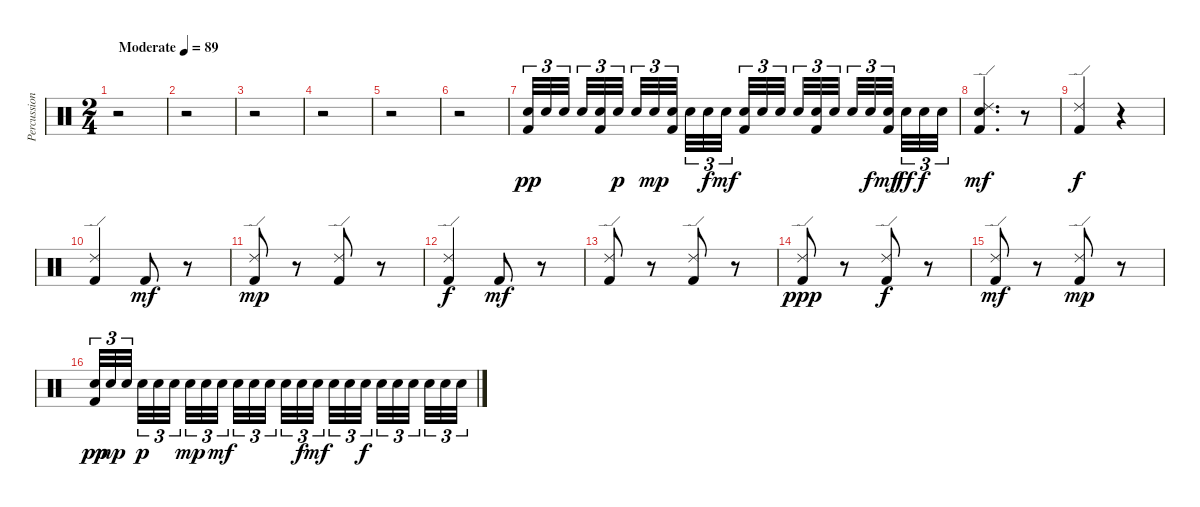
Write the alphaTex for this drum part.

\track ("Percussion" "Percussion") {instrument percussion}
\staff {score}
\articulation defaults
\ts (2 4)
\tempo (89 "Moderate")
\clef neutral
\ks c
r.2{dy pp} |
r.2 |
r.2 |
r.2 |
r.2 |
r.2 |
("Kick (hit) 2" "Snare (hit) 2").32{tu (3 2)} "Snare (hit) 2".32{tu (3 2)} "Snare (hit) 2".32{tu (3 2) beam splitsecondary} "Snare (hit) 2".32{tu (3 2)} ("Kick (hit) 2" "Snare (hit) 2").32{tu (3 2)} "Snare (hit) 2".32{tu (3 2) dy p beam splitsecondary} "Snare (hit) 2".32{tu (3 2)} "Snare (hit) 2".32{tu (3 2) dy mp} ("Kick (hit) 2" "Snare (hit) 2").32{tu (3 2) beam splitsecondary} "Snare (hit) 2".32{tu (3 2)} "Snare (hit) 2".32{tu (3 2) dy f} "Snare (hit) 2".32{tu (3 2) dy mf} ("Kick (hit) 2" "Snare (hit) 2").32{tu (3 2)} "Snare (hit) 2".32{tu (3 2)} "Snare (hit) 2".32{tu (3 2) beam splitsecondary} "Snare (hit) 2".32{tu (3 2)} ("Kick (hit) 2" "Snare (hit) 2").32{tu (3 2)} "Snare (hit) 2".32{tu (3 2) beam splitsecondary} "Snare (hit) 2".32{tu (3 2)} "Snare (hit) 2".32{tu (3 2) dy f} ("Kick (hit) 2" "Snare (hit) 2").32{tu (3 2) dy mf beam splitsecondary} "Snare (hit) 2".32{tu (3 2) dy ff} "Snare (hit) 2".32{tu (3 2) dy f} "Snare (hit) 2".32{tu (3 2)} |
("Kick (hit) 2" "Snare (hit) 2" "Ride (edge) 2").4{d dy mf} r.8 |
("Kick (hit) 2" "Ride (edge) 2").4{dy f} r.4 |
("Kick (hit) 2" "Ride (edge) 2").4 "Kick (hit) 2".8{dy mf} r.8 |
("Kick (hit) 2" "Ride (edge) 2").8{dy mp} r.8 ("Kick (hit) 2" "Ride (edge) 2").8 r.8 |
("Kick (hit) 2" "Ride (edge) 2").4{dy f} "Kick (hit) 2".8{dy mf} r.8 |
("Kick (hit) 2" "Ride (edge) 2").8 r.8 ("Kick (hit) 2" "Ride (edge) 2").8 r.8 |
("Kick (hit) 2" "Ride (edge) 2").8{dy ppp} r.8 ("Kick (hit) 2" "Ride (edge) 2").8{dy f} r.8 |
("Kick (hit) 2" "Ride (edge) 2").8{dy mf} r.8 ("Kick (hit) 2" "Ride (edge) 2").8{dy mp} r.8 |
("Kick (hit) 2" "Snare (hit) 2").32{tu (3 2) dy pp} "Snare (hit) 2".32{tu (3 2) dy mp} "Snare (hit) 2".32{tu (3 2) beam splitsecondary} "Snare (hit) 2".32{tu (3 2) dy p} "Snare (hit) 2".32{tu (3 2)} "Snare (hit) 2".32{tu (3 2) beam splitsecondary} "Snare (hit) 2".32{tu (3 2) dy mp} "Snare (hit) 2".32{tu (3 2)} "Snare (hit) 2".32{tu (3 2) dy mf beam splitsecondary} "Snare (hit) 2".32{tu (3 2)} "Snare (hit) 2".32{tu (3 2)} "Snare (hit) 2".32{tu (3 2)} "Snare (hit) 2".32{tu (3 2)} "Snare (hit) 2".32{tu (3 2) dy f} "Snare (hit) 2".32{tu (3 2) dy mf beam splitsecondary} "Snare (hit) 2".32{tu (3 2)} "Snare (hit) 2".32{tu (3 2)} "Snare (hit) 2".32{tu (3 2) dy f beam splitsecondary} "Snare (hit) 2".32{tu (3 2)} "Snare (hit) 2".32{tu (3 2)} "Snare (hit) 2".32{tu (3 2) beam splitsecondary} "Snare (hit) 2".32{tu (3 2)} "Snare (hit) 2".32{tu (3 2)} "Snare (hit) 2".32{tu (3 2)}
